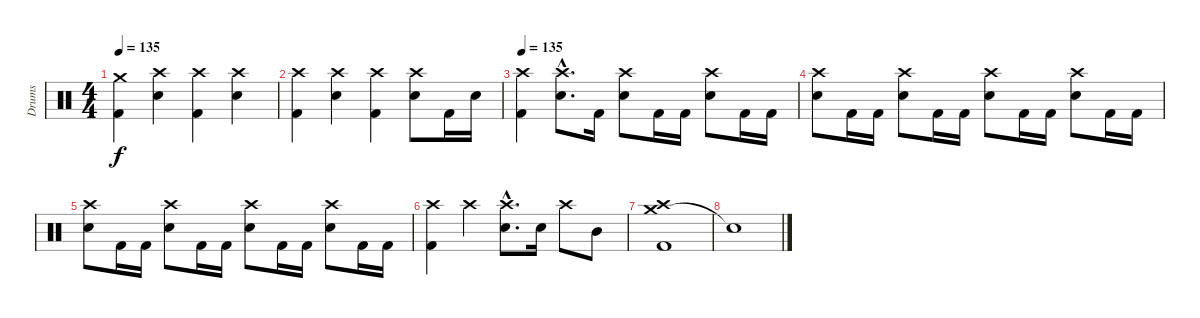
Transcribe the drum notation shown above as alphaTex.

\track ("Drums" "Drums") {instrument percussion}
\staff {score}
\articulation defaults
\ts (4 4)
\tempo 135
\clef neutral
\ks c
("Crash medium (hit)" "Kick (hit) 2").4{dy f} ("Crash high (hit)" "Electric Snare (hit)").4 ("Crash high (hit)" "Kick (hit) 2").4 ("Crash high (hit)" "Electric Snare (hit)").4 |
("Crash high (hit)" "Kick (hit) 2").4 ("Crash high (hit)" "Electric Snare (hit)").4 ("Crash high (hit)" "Kick (hit) 2").4 ("Crash high (hit)" "Electric Snare (hit)").8 "Kick (hit) 2".16 "Electric Snare (hit)".16 |
\tempo 135
("Crash high (hit)" "Kick (hit) 2").4 ("Crash high (hit)"{hac} "Electric Snare (hit)"{hac}).8{d} "Kick (hit) 2".16 ("Crash high (hit)" "Electric Snare (hit)").8 "Kick (hit) 2".16 "Kick (hit) 2".16 ("Crash high (hit)" "Electric Snare (hit)").8 "Kick (hit) 2".16 "Kick (hit) 2".16 |
("Crash high (hit)" "Electric Snare (hit)").8 "Kick (hit) 2".16 "Kick (hit) 2".16 ("Crash high (hit)" "Electric Snare (hit)").8 "Kick (hit) 2".16 "Kick (hit) 2".16 ("Crash high (hit)" "Electric Snare (hit)").8 "Kick (hit) 2".16 "Kick (hit) 2".16 ("Crash high (hit)" "Electric Snare (hit)").8 "Kick (hit) 2".16 "Kick (hit) 2".16 |
("Crash high (hit)" "Electric Snare (hit)").8 "Kick (hit) 2".16 "Kick (hit) 2".16 ("Crash high (hit)" "Electric Snare (hit)").8 "Kick (hit) 2".16 "Kick (hit) 2".16 ("Crash high (hit)" "Electric Snare (hit)").8 "Kick (hit) 2".16 "Kick (hit) 2".16 ("Crash high (hit)" "Electric Snare (hit)").8 "Kick (hit) 2".16 "Kick (hit) 2".16 |
("Crash high (hit)" "Kick (hit) 2").4 "Crash high (hit)".4 ("Crash high (hit)"{hac} "Electric Snare (hit)"{hac}).8{d} "Electric Snare (hit)".16 "Crash high (hit)".8 "Mid Tom (hit)".8 |
("Crash medium (hit)" "Crash high (hit)" "Kick (hit) 2").1 |
"Snare (hit)"{t}.1
